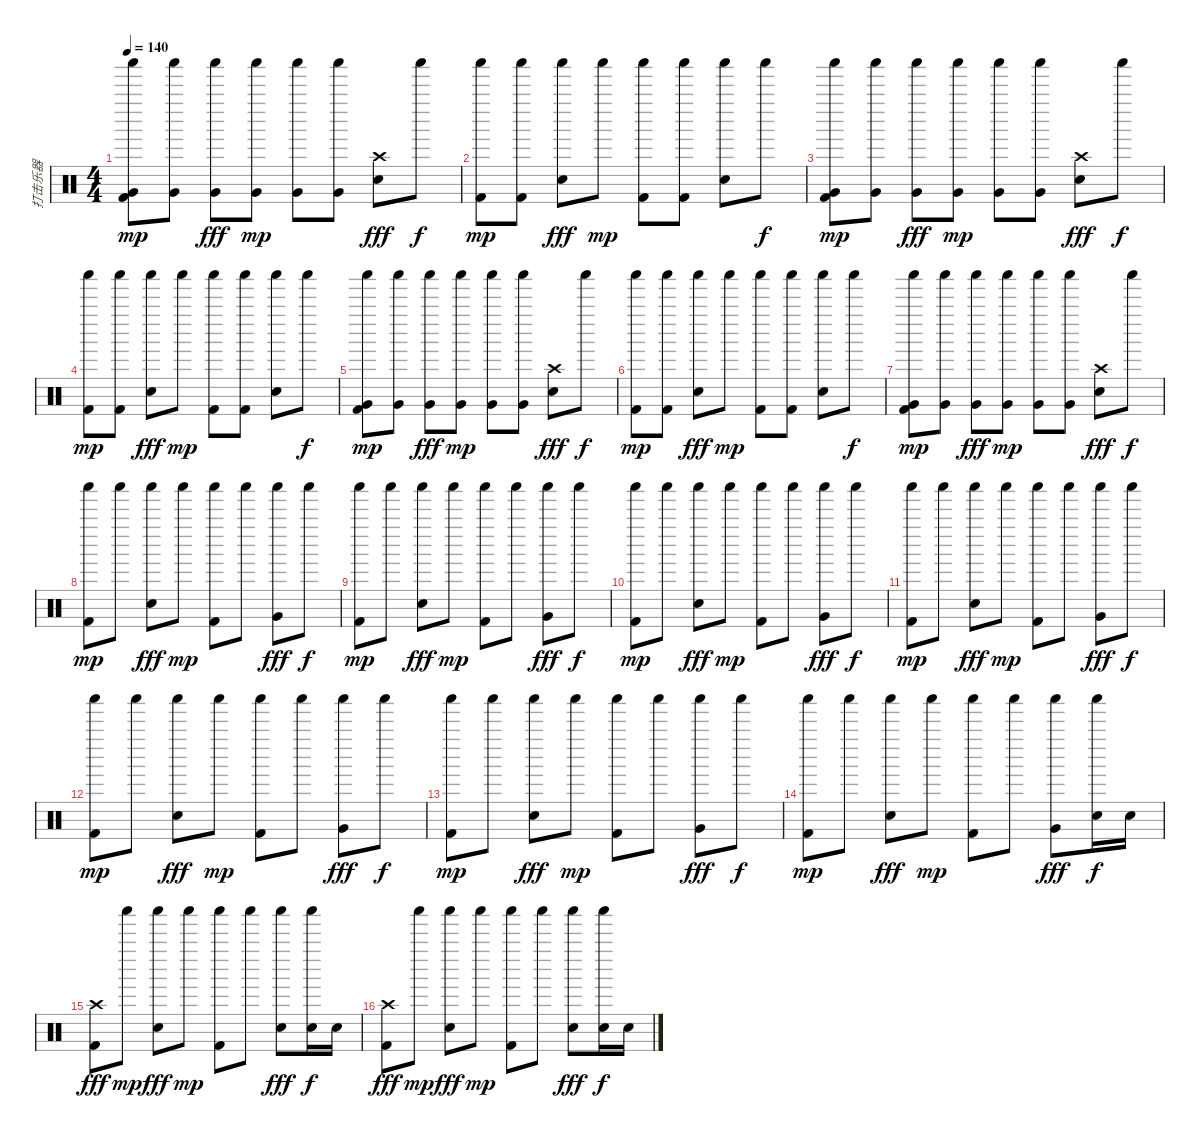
\track ("打击乐器" "打击乐器") {instrument percussion}
\staff {score}
\articulation defaults
\ts (4 4)
\tempo 140
\clef neutral
\ks c
("Shaker (hit)" "Very Low Tom (hit)" "Kick (hit) 2").8{dy mp} ("Shaker (hit)" "Very Low Tom (hit)").8 ("Shaker (hit)" "Very Low Tom (hit)").8{dy fff} ("Shaker (hit)" "Very Low Tom (hit)").8{dy mp} ("Shaker (hit)" "Very Low Tom (hit)").8 ("Shaker (hit)" "Very Low Tom (hit)").8 ("Crash high (hit)" "Electric Snare (hit)").8{dy fff} "Shaker (hit)".8{dy f} |
("Shaker (hit)" "Kick (hit) 2").8{dy mp} ("Shaker (hit)" "Kick (hit) 2").8 ("Shaker (hit)" "Electric Snare (hit)").8{dy fff} "Shaker (hit)".8{dy mp} ("Shaker (hit)" "Kick (hit) 2").8 ("Shaker (hit)" "Kick (hit) 2").8 ("Shaker (hit)" "Electric Snare (hit)").8 "Shaker (hit)".8{dy f} |
("Shaker (hit)" "Very Low Tom (hit)" "Kick (hit) 2").8{dy mp} ("Shaker (hit)" "Very Low Tom (hit)").8 ("Shaker (hit)" "Very Low Tom (hit)").8{dy fff} ("Shaker (hit)" "Very Low Tom (hit)").8{dy mp} ("Shaker (hit)" "Very Low Tom (hit)").8 ("Shaker (hit)" "Very Low Tom (hit)").8 ("Crash high (hit)" "Electric Snare (hit)").8{dy fff} "Shaker (hit)".8{dy f} |
("Shaker (hit)" "Kick (hit) 2").8{dy mp} ("Shaker (hit)" "Kick (hit) 2").8 ("Shaker (hit)" "Electric Snare (hit)").8{dy fff} "Shaker (hit)".8{dy mp} ("Shaker (hit)" "Kick (hit) 2").8 ("Shaker (hit)" "Kick (hit) 2").8 ("Shaker (hit)" "Electric Snare (hit)").8 "Shaker (hit)".8{dy f} |
("Shaker (hit)" "Very Low Tom (hit)" "Kick (hit) 2").8{dy mp} ("Shaker (hit)" "Very Low Tom (hit)").8 ("Shaker (hit)" "Very Low Tom (hit)").8{dy fff} ("Shaker (hit)" "Very Low Tom (hit)").8{dy mp} ("Shaker (hit)" "Very Low Tom (hit)").8 ("Shaker (hit)" "Very Low Tom (hit)").8 ("Crash high (hit)" "Electric Snare (hit)").8{dy fff} "Shaker (hit)".8{dy f} |
("Shaker (hit)" "Kick (hit) 2").8{dy mp} ("Shaker (hit)" "Kick (hit) 2").8 ("Shaker (hit)" "Electric Snare (hit)").8{dy fff} "Shaker (hit)".8{dy mp} ("Shaker (hit)" "Kick (hit) 2").8 ("Shaker (hit)" "Kick (hit) 2").8 ("Shaker (hit)" "Electric Snare (hit)").8 "Shaker (hit)".8{dy f} |
("Shaker (hit)" "Very Low Tom (hit)" "Kick (hit) 2").8{dy mp} ("Shaker (hit)" "Very Low Tom (hit)").8 ("Shaker (hit)" "Very Low Tom (hit)").8{dy fff} ("Shaker (hit)" "Very Low Tom (hit)").8{dy mp} ("Shaker (hit)" "Very Low Tom (hit)").8 ("Shaker (hit)" "Very Low Tom (hit)").8 ("Crash high (hit)" "Electric Snare (hit)").8{dy fff} "Shaker (hit)".8{dy f} |
("Shaker (hit)" "Kick (hit) 2").8{dy mp} "Shaker (hit)".8 ("Shaker (hit)" "Electric Snare (hit)").8{dy fff} "Shaker (hit)".8{dy mp} ("Shaker (hit)" "Kick (hit) 2").8 "Shaker (hit)".8 ("Shaker (hit)" "Very Low Tom (hit)").8{dy fff} "Shaker (hit)".8{dy f} |
("Shaker (hit)" "Kick (hit) 2").8{dy mp} "Shaker (hit)".8 ("Shaker (hit)" "Electric Snare (hit)").8{dy fff} "Shaker (hit)".8{dy mp} ("Shaker (hit)" "Kick (hit) 2").8 "Shaker (hit)".8 ("Shaker (hit)" "Very Low Tom (hit)").8{dy fff} "Shaker (hit)".8{dy f} |
("Shaker (hit)" "Kick (hit) 2").8{dy mp} "Shaker (hit)".8 ("Shaker (hit)" "Electric Snare (hit)").8{dy fff} "Shaker (hit)".8{dy mp} ("Shaker (hit)" "Kick (hit) 2").8 "Shaker (hit)".8 ("Shaker (hit)" "Very Low Tom (hit)").8{dy fff} "Shaker (hit)".8{dy f} |
("Shaker (hit)" "Kick (hit) 2").8{dy mp} "Shaker (hit)".8 ("Shaker (hit)" "Electric Snare (hit)").8{dy fff} "Shaker (hit)".8{dy mp} ("Shaker (hit)" "Kick (hit) 2").8 "Shaker (hit)".8 ("Shaker (hit)" "Very Low Tom (hit)").8{dy fff} "Shaker (hit)".8{dy f} |
("Shaker (hit)" "Kick (hit) 2").8{dy mp} "Shaker (hit)".8 ("Shaker (hit)" "Electric Snare (hit)").8{dy fff} "Shaker (hit)".8{dy mp} ("Shaker (hit)" "Kick (hit) 2").8 "Shaker (hit)".8 ("Shaker (hit)" "Very Low Tom (hit)").8{dy fff} "Shaker (hit)".8{dy f} |
("Shaker (hit)" "Kick (hit) 2").8{dy mp} "Shaker (hit)".8 ("Shaker (hit)" "Electric Snare (hit)").8{dy fff} "Shaker (hit)".8{dy mp} ("Shaker (hit)" "Kick (hit) 2").8 "Shaker (hit)".8 ("Shaker (hit)" "Very Low Tom (hit)").8{dy fff} "Shaker (hit)".8{dy f} |
("Shaker (hit)" "Kick (hit) 2").8{dy mp} "Shaker (hit)".8 ("Shaker (hit)" "Electric Snare (hit)").8{dy fff} "Shaker (hit)".8{dy mp} ("Shaker (hit)" "Kick (hit) 2").8 "Shaker (hit)".8 ("Shaker (hit)" "Very Low Tom (hit)").8{dy fff} ("Shaker (hit)" "Electric Snare (hit)").16{dy f} "Electric Snare (hit)".16 |
("Crash high (hit)" "Kick (hit) 2").8{dy fff} "Shaker (hit)".8{dy mp} ("Shaker (hit)" "Electric Snare (hit)").8{dy fff} "Shaker (hit)".8{dy mp} ("Shaker (hit)" "Kick (hit) 2").8 "Shaker (hit)".8 ("Shaker (hit)" "Electric Snare (hit)").8{dy fff} ("Shaker (hit)" "Electric Snare (hit)").16{dy f} "Electric Snare (hit)".16 |
("Crash high (hit)" "Kick (hit) 2").8{dy fff} "Shaker (hit)".8{dy mp} ("Shaker (hit)" "Electric Snare (hit)").8{dy fff} "Shaker (hit)".8{dy mp} ("Shaker (hit)" "Kick (hit) 2").8 "Shaker (hit)".8 ("Shaker (hit)" "Electric Snare (hit)").8{dy fff} ("Shaker (hit)" "Electric Snare (hit)").16{dy f} "Electric Snare (hit)".16
